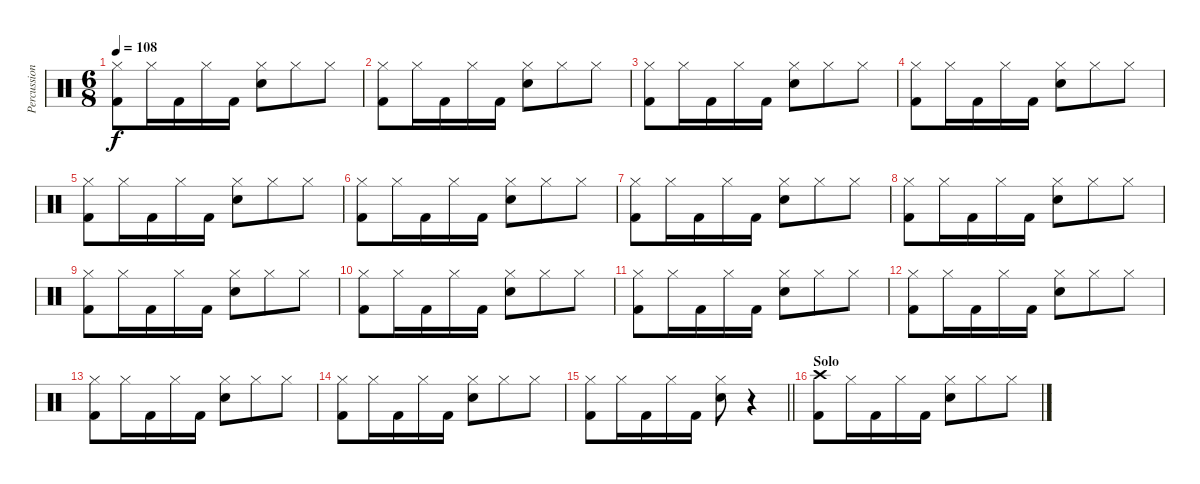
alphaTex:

\track ("Percussions" "Percussion") {instrument percussion}
\staff {score}
\articulation defaults
\ts (6 8)
\tempo 108
\clef neutral
\ks c
("Hi-Hat (closed)" "Kick (hit) 2").8{dy f} "Hi-Hat (closed)".16 "Kick (hit) 2".16 "Hi-Hat (closed)".16 "Kick (hit) 2".16 ("Hi-Hat (closed)" "Electric Snare (hit)").8 "Hi-Hat (closed)".8 "Hi-Hat (closed)".8 |
("Hi-Hat (closed)" "Kick (hit) 2").8 "Hi-Hat (closed)".16 "Kick (hit) 2".16 "Hi-Hat (closed)".16 "Kick (hit) 2".16 ("Hi-Hat (closed)" "Electric Snare (hit)").8 "Hi-Hat (closed)".8 "Hi-Hat (closed)".8 |
("Hi-Hat (closed)" "Kick (hit) 2").8 "Hi-Hat (closed)".16 "Kick (hit) 2".16 "Hi-Hat (closed)".16 "Kick (hit) 2".16 ("Hi-Hat (closed)" "Electric Snare (hit)").8 "Hi-Hat (closed)".8 "Hi-Hat (closed)".8 |
("Hi-Hat (closed)" "Kick (hit) 2").8 "Hi-Hat (closed)".16 "Kick (hit) 2".16 "Hi-Hat (closed)".16 "Kick (hit) 2".16 ("Hi-Hat (closed)" "Electric Snare (hit)").8 "Hi-Hat (closed)".8 "Hi-Hat (closed)".8 |
("Hi-Hat (closed)" "Kick (hit) 2").8 "Hi-Hat (closed)".16 "Kick (hit) 2".16 "Hi-Hat (closed)".16 "Kick (hit) 2".16 ("Hi-Hat (closed)" "Electric Snare (hit)").8 "Hi-Hat (closed)".8 "Hi-Hat (closed)".8 |
("Hi-Hat (closed)" "Kick (hit) 2").8 "Hi-Hat (closed)".16 "Kick (hit) 2".16 "Hi-Hat (closed)".16 "Kick (hit) 2".16 ("Hi-Hat (closed)" "Electric Snare (hit)").8 "Hi-Hat (closed)".8 "Hi-Hat (closed)".8 |
("Hi-Hat (closed)" "Kick (hit) 2").8 "Hi-Hat (closed)".16 "Kick (hit) 2".16 "Hi-Hat (closed)".16 "Kick (hit) 2".16 ("Hi-Hat (closed)" "Electric Snare (hit)").8 "Hi-Hat (closed)".8 "Hi-Hat (closed)".8 |
("Hi-Hat (closed)" "Kick (hit) 2").8 "Hi-Hat (closed)".16 "Kick (hit) 2".16 "Hi-Hat (closed)".16 "Kick (hit) 2".16 ("Hi-Hat (closed)" "Electric Snare (hit)").8 "Hi-Hat (closed)".8 "Hi-Hat (closed)".8 |
("Hi-Hat (closed)" "Kick (hit) 2").8 "Hi-Hat (closed)".16 "Kick (hit) 2".16 "Hi-Hat (closed)".16 "Kick (hit) 2".16 ("Hi-Hat (closed)" "Electric Snare (hit)").8 "Hi-Hat (closed)".8 "Hi-Hat (closed)".8 |
("Hi-Hat (closed)" "Kick (hit) 2").8 "Hi-Hat (closed)".16 "Kick (hit) 2".16 "Hi-Hat (closed)".16 "Kick (hit) 2".16 ("Hi-Hat (closed)" "Electric Snare (hit)").8 "Hi-Hat (closed)".8 "Hi-Hat (closed)".8 |
("Hi-Hat (closed)" "Kick (hit) 2").8 "Hi-Hat (closed)".16 "Kick (hit) 2".16 "Hi-Hat (closed)".16 "Kick (hit) 2".16 ("Hi-Hat (closed)" "Electric Snare (hit)").8 "Hi-Hat (closed)".8 "Hi-Hat (closed)".8 |
("Hi-Hat (closed)" "Kick (hit) 2").8 "Hi-Hat (closed)".16 "Kick (hit) 2".16 "Hi-Hat (closed)".16 "Kick (hit) 2".16 ("Hi-Hat (closed)" "Electric Snare (hit)").8 "Hi-Hat (closed)".8 "Hi-Hat (closed)".8 |
("Hi-Hat (closed)" "Kick (hit) 2").8 "Hi-Hat (closed)".16 "Kick (hit) 2".16 "Hi-Hat (closed)".16 "Kick (hit) 2".16 ("Hi-Hat (closed)" "Electric Snare (hit)").8 "Hi-Hat (closed)".8 "Hi-Hat (closed)".8 |
("Hi-Hat (closed)" "Kick (hit) 2").8 "Hi-Hat (closed)".16 "Kick (hit) 2".16 "Hi-Hat (closed)".16 "Kick (hit) 2".16 ("Hi-Hat (closed)" "Electric Snare (hit)").8 "Hi-Hat (closed)".8 "Hi-Hat (closed)".8 |
\barLineRight lightlight
("Hi-Hat (closed)" "Kick (hit) 2").8 "Hi-Hat (closed)".16 "Kick (hit) 2".16 "Hi-Hat (closed)".16 "Kick (hit) 2".16 ("Hi-Hat (closed)" "Electric Snare (hit)").8 r.4 |
\section ("" "Solo")
("Crash high (hit)" "Kick (hit) 2").8 "Hi-Hat (closed)".16 "Kick (hit) 2".16 "Hi-Hat (closed)".16 "Kick (hit) 2".16 ("Hi-Hat (closed)" "Electric Snare (hit)").8 "Hi-Hat (closed)".8 "Hi-Hat (closed)".8
